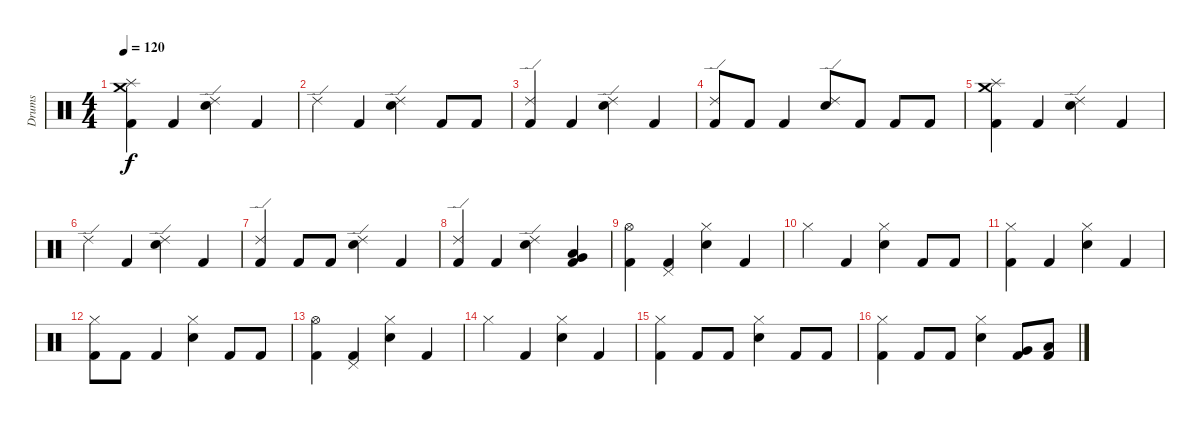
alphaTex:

\track ("Drums" "Drums") {instrument percussion}
\staff {score}
\articulation defaults
\ts (4 4)
\tempo 120
\clef neutral
\ks c
("Crash medium (hit)" "Splash (hit)" "Kick (hit) 2").4{dy f} "Kick (hit) 2".4 ("Ride (edge) 2" "Electric Snare (hit)").4 "Kick (hit) 2".4 |
"Ride (edge) 2".4 "Kick (hit) 2".4 ("Ride (edge) 2" "Electric Snare (hit)").4 "Kick (hit) 2".8 "Kick (hit) 2".8 |
("Ride (edge) 2" "Kick (hit) 2").4 "Kick (hit) 2".4 ("Ride (edge) 2" "Electric Snare (hit)").4 "Kick (hit) 2".4 |
("Ride (edge) 2" "Kick (hit) 2").8 "Kick (hit) 2".8 "Kick (hit) 2".4 ("Ride (edge) 2" "Electric Snare (hit)").8 "Kick (hit) 2".8 "Kick (hit) 2".8 "Kick (hit) 2".8 |
("Crash medium (hit)" "Splash (hit)" "Kick (hit) 2").4 "Kick (hit) 2".4 ("Ride (edge) 2" "Electric Snare (hit)").4 "Kick (hit) 2".4 |
"Ride (edge) 2".4 "Kick (hit) 2".4 ("Ride (edge) 2" "Electric Snare (hit)").4 "Kick (hit) 2".4 |
("Ride (edge) 2" "Kick (hit) 2").4 "Kick (hit) 2".8 "Kick (hit) 2".8 ("Ride (edge) 2" "Electric Snare (hit)").4 "Kick (hit) 2".4 |
("Ride (edge) 2" "Kick (hit) 2").4 "Kick (hit) 2".4 ("Ride (edge) 2" "Electric Snare (hit)").4 ("Low Floor Tom (hit)" "Very Low Tom (hit)" "Kick (hit) 2").4 |
("Hi-Hat (open)" "Kick (hit) 2").4 ("Pedal Hi-Hat (hit)" "Kick (hit) 2").4 ("Hi-Hat (closed)" "Electric Snare (hit)").4 "Kick (hit) 2".4 |
"Hi-Hat (closed)".4 "Kick (hit) 2".4 ("Hi-Hat (closed)" "Electric Snare (hit)").4 "Kick (hit) 2".8 "Kick (hit) 2".8 |
("Hi-Hat (closed)" "Kick (hit) 2").4 "Kick (hit) 2".4 ("Hi-Hat (closed)" "Electric Snare (hit)").4 "Kick (hit) 2".4 |
("Hi-Hat (closed)" "Kick (hit) 2").8 "Kick (hit) 2".8 "Kick (hit) 2".4 ("Hi-Hat (closed)" "Electric Snare (hit)").4 "Kick (hit) 2".8 "Kick (hit) 2".8 |
("Hi-Hat (open)" "Kick (hit) 2").4 ("Pedal Hi-Hat (hit)" "Kick (hit) 2").4 ("Hi-Hat (closed)" "Electric Snare (hit)").4 "Kick (hit) 2".4 |
"Hi-Hat (closed)".4 "Kick (hit) 2".4 ("Hi-Hat (closed)" "Electric Snare (hit)").4 "Kick (hit) 2".4 |
("Hi-Hat (closed)" "Kick (hit) 2").4 "Kick (hit) 2".8 "Kick (hit) 2".8 ("Hi-Hat (closed)" "Electric Snare (hit)").4 "Kick (hit) 2".8 "Kick (hit) 2".8 |
("Hi-Hat (closed)" "Kick (hit) 2").4 "Kick (hit) 2".8 "Kick (hit) 2".8 ("Hi-Hat (closed)" "Electric Snare (hit)").4 ("Very Low Tom (hit)" "Kick (hit) 2").8 ("Low Floor Tom (hit)" "Kick (hit) 2").8
